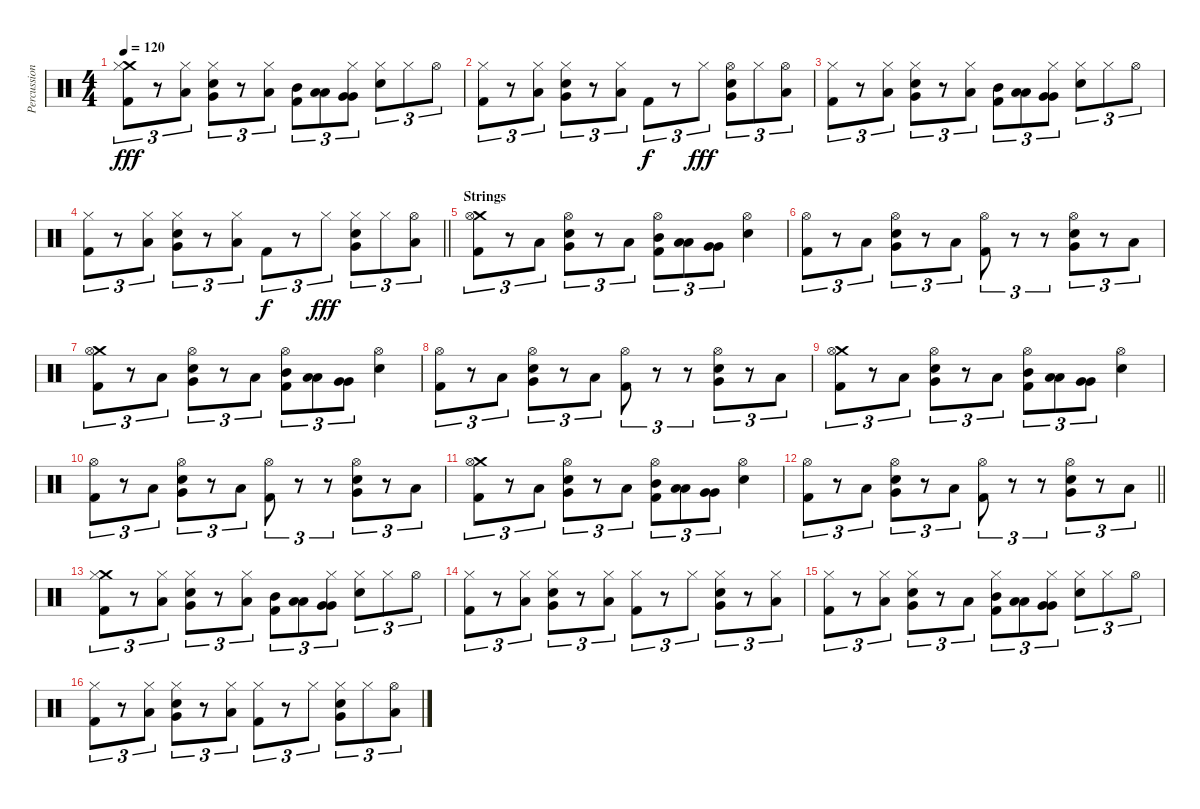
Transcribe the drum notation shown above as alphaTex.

\track ("Percussion" "Percussion") {instrument percussion}
\staff {score}
\articulation defaults
\ts (4 4)
\tempo 120
\clef neutral
\ks c
("Crash medium (hit)" "Hi-Hat (closed)" "Kick (hit) 2").8{tu (3 2) dy fff} r.8{tu (3 2)} ("Low Tom (hit)" "Hi-Hat (closed)").8{tu (3 2)} ("Very Low Tom (hit)" "Hi-Hat (closed)" "Snare (hit) 2").8{tu (3 2)} r.8{tu (3 2)} ("Low Tom (hit)" "Hi-Hat (closed)").8{tu (3 2)} ("Mid Tom (hit)" "Kick (hit) 2").8{tu (3 2)} ("Low Tom (hit)" "Low Tom (hit)").8{tu (3 2)} ("Very Low Tom (hit)" "Very Low Tom (hit)" "Hi-Hat (closed)").8{tu (3 2)} ("Hi-Hat (closed)" "Snare (hit) 2").8{tu (3 2)} "Hi-Hat (closed)".8{tu (3 2)} "Hi-Hat (open)".8{tu (3 2)} |
("Hi-Hat (closed)" "Kick (hit) 2").8{tu (3 2)} r.8{tu (3 2)} ("Low Tom (hit)" "Hi-Hat (closed)").8{tu (3 2)} ("Very Low Tom (hit)" "Hi-Hat (closed)" "Snare (hit) 2").8{tu (3 2)} r.8{tu (3 2)} ("Low Tom (hit)" "Hi-Hat (closed)").8{tu (3 2)} "Kick (hit) 2".8{tu (3 2) dy f} r.8{tu (3 2)} "Hi-Hat (closed)".8{tu (3 2) dy fff} ("Very Low Tom (hit)" "Hi-Hat (open)" "Snare (hit) 2").8{tu (3 2)} "Hi-Hat (closed)".8{tu (3 2)} ("Low Tom (hit)" "Hi-Hat (open)").8{tu (3 2)} |
("Hi-Hat (closed)" "Kick (hit) 2").8{tu (3 2)} r.8{tu (3 2)} ("Low Tom (hit)" "Hi-Hat (closed)").8{tu (3 2)} ("Very Low Tom (hit)" "Hi-Hat (closed)" "Snare (hit) 2").8{tu (3 2)} r.8{tu (3 2)} ("Low Tom (hit)" "Hi-Hat (closed)").8{tu (3 2)} ("Mid Tom (hit)" "Kick (hit) 2").8{tu (3 2)} ("Low Tom (hit)" "Low Tom (hit)").8{tu (3 2)} ("Very Low Tom (hit)" "Very Low Tom (hit)" "Hi-Hat (closed)").8{tu (3 2)} ("Hi-Hat (closed)" "Snare (hit) 2").8{tu (3 2)} "Hi-Hat (closed)".8{tu (3 2)} "Hi-Hat (open)".8{tu (3 2)} |
\barLineRight lightlight
("Hi-Hat (closed)" "Kick (hit) 2").8{tu (3 2)} r.8{tu (3 2)} ("Low Tom (hit)" "Hi-Hat (closed)").8{tu (3 2)} ("Very Low Tom (hit)" "Hi-Hat (closed)" "Snare (hit) 2").8{tu (3 2)} r.8{tu (3 2)} ("Low Tom (hit)" "Hi-Hat (closed)").8{tu (3 2)} "Kick (hit) 2".8{tu (3 2) dy f} r.8{tu (3 2)} "Hi-Hat (closed)".8{tu (3 2) dy fff} ("Very Low Tom (hit)" "Hi-Hat (closed)" "Snare (hit) 2").8{tu (3 2)} "Hi-Hat (closed)".8{tu (3 2)} ("Low Tom (hit)" "Hi-Hat (open)").8{tu (3 2)} |
\section ("" "Strings")
("Crash medium (hit)" "Hi-Hat (open)" "Kick (hit) 2").8{tu (3 2)} r.8{tu (3 2)} "Low Tom (hit)".8{tu (3 2)} ("Very Low Tom (hit)" "Hi-Hat (open)" "Snare (hit) 2").8{tu (3 2)} r.8{tu (3 2)} "Low Tom (hit)".8{tu (3 2)} ("Mid Tom (hit)" "Hi-Hat (open)" "Kick (hit) 2").8{tu (3 2)} ("Low Tom (hit)" "Low Tom (hit)").8{tu (3 2)} ("Very Low Tom (hit)" "Very Low Tom (hit)").8{tu (3 2)} ("Hi-Hat (open)" "Snare (hit) 2").4 |
("Hi-Hat (open)" "Kick (hit) 2").8{tu (3 2)} r.8{tu (3 2)} "Low Tom (hit)".8{tu (3 2)} ("Very Low Tom (hit)" "Hi-Hat (open)" "Snare (hit) 2").8{tu (3 2)} r.8{tu (3 2)} "Low Tom (hit)".8{tu (3 2)} ("Hi-Hat (open)" "Kick (hit) 2").8{tu (3 2)} r.8{tu (3 2)} r.8{tu (3 2)} ("Very Low Tom (hit)" "Hi-Hat (open)" "Snare (hit) 2").8{tu (3 2)} r.8{tu (3 2)} "Low Tom (hit)".8{tu (3 2)} |
("Crash medium (hit)" "Hi-Hat (open)" "Kick (hit) 2").8{tu (3 2)} r.8{tu (3 2)} "Low Tom (hit)".8{tu (3 2)} ("Very Low Tom (hit)" "Hi-Hat (open)" "Snare (hit) 2").8{tu (3 2)} r.8{tu (3 2)} "Low Tom (hit)".8{tu (3 2)} ("Mid Tom (hit)" "Hi-Hat (open)" "Kick (hit) 2").8{tu (3 2)} ("Low Tom (hit)" "Low Tom (hit)").8{tu (3 2)} ("Very Low Tom (hit)" "Very Low Tom (hit)").8{tu (3 2)} ("Hi-Hat (open)" "Snare (hit) 2").4 |
("Hi-Hat (open)" "Kick (hit) 2").8{tu (3 2)} r.8{tu (3 2)} "Low Tom (hit)".8{tu (3 2)} ("Very Low Tom (hit)" "Hi-Hat (open)" "Snare (hit) 2").8{tu (3 2)} r.8{tu (3 2)} "Low Tom (hit)".8{tu (3 2)} ("Hi-Hat (open)" "Kick (hit) 2").8{tu (3 2)} r.8{tu (3 2)} r.8{tu (3 2)} ("Very Low Tom (hit)" "Hi-Hat (open)" "Snare (hit) 2").8{tu (3 2)} r.8{tu (3 2)} "Low Tom (hit)".8{tu (3 2)} |
("Crash medium (hit)" "Hi-Hat (open)" "Kick (hit) 2").8{tu (3 2)} r.8{tu (3 2)} "Low Tom (hit)".8{tu (3 2)} ("Very Low Tom (hit)" "Hi-Hat (open)" "Snare (hit) 2").8{tu (3 2)} r.8{tu (3 2)} "Low Tom (hit)".8{tu (3 2)} ("Mid Tom (hit)" "Hi-Hat (open)" "Kick (hit) 2").8{tu (3 2)} ("Low Tom (hit)" "Low Tom (hit)").8{tu (3 2)} ("Very Low Tom (hit)" "Very Low Tom (hit)").8{tu (3 2)} ("Hi-Hat (open)" "Snare (hit) 2").4 |
("Hi-Hat (open)" "Kick (hit) 2").8{tu (3 2)} r.8{tu (3 2)} "Low Tom (hit)".8{tu (3 2)} ("Very Low Tom (hit)" "Hi-Hat (open)" "Snare (hit) 2").8{tu (3 2)} r.8{tu (3 2)} "Low Tom (hit)".8{tu (3 2)} ("Hi-Hat (open)" "Kick (hit) 2").8{tu (3 2)} r.8{tu (3 2)} r.8{tu (3 2)} ("Very Low Tom (hit)" "Hi-Hat (open)" "Snare (hit) 2").8{tu (3 2)} r.8{tu (3 2)} "Low Tom (hit)".8{tu (3 2)} |
("Crash medium (hit)" "Hi-Hat (open)" "Kick (hit) 2").8{tu (3 2)} r.8{tu (3 2)} "Low Tom (hit)".8{tu (3 2)} ("Very Low Tom (hit)" "Hi-Hat (open)" "Snare (hit) 2").8{tu (3 2)} r.8{tu (3 2)} "Low Tom (hit)".8{tu (3 2)} ("Mid Tom (hit)" "Hi-Hat (open)" "Kick (hit) 2").8{tu (3 2)} ("Low Tom (hit)" "Low Tom (hit)").8{tu (3 2)} ("Very Low Tom (hit)" "Very Low Tom (hit)").8{tu (3 2)} ("Hi-Hat (open)" "Snare (hit) 2").4 |
\barLineRight lightlight
("Hi-Hat (open)" "Kick (hit) 2").8{tu (3 2)} r.8{tu (3 2)} "Low Tom (hit)".8{tu (3 2)} ("Very Low Tom (hit)" "Hi-Hat (open)" "Snare (hit) 2").8{tu (3 2)} r.8{tu (3 2)} "Low Tom (hit)".8{tu (3 2)} ("Hi-Hat (open)" "Kick (hit) 2").8{tu (3 2)} r.8{tu (3 2)} r.8{tu (3 2)} ("Very Low Tom (hit)" "Hi-Hat (open)" "Snare (hit) 2").8{tu (3 2)} r.8{tu (3 2)} "Low Tom (hit)".8{tu (3 2)} |
\section ("" "")
("Crash medium (hit)" "Hi-Hat (closed)" "Kick (hit) 2").8{tu (3 2)} r.8{tu (3 2)} ("Low Tom (hit)" "Hi-Hat (closed)").8{tu (3 2)} ("Very Low Tom (hit)" "Hi-Hat (closed)" "Snare (hit) 2").8{tu (3 2)} r.8{tu (3 2)} ("Low Tom (hit)" "Hi-Hat (closed)").8{tu (3 2)} ("Mid Tom (hit)" "Kick (hit) 2").8{tu (3 2)} ("Low Tom (hit)" "Low Tom (hit)").8{tu (3 2)} ("Very Low Tom (hit)" "Very Low Tom (hit)" "Hi-Hat (closed)").8{tu (3 2)} ("Hi-Hat (closed)" "Snare (hit) 2").8{tu (3 2)} "Hi-Hat (closed)".8{tu (3 2)} "Hi-Hat (open)".8{tu (3 2)} |
("Hi-Hat (closed)" "Kick (hit) 2").8{tu (3 2)} r.8{tu (3 2)} ("Low Tom (hit)" "Hi-Hat (closed)").8{tu (3 2)} ("Very Low Tom (hit)" "Hi-Hat (closed)" "Snare (hit) 2").8{tu (3 2)} r.8{tu (3 2)} ("Low Tom (hit)" "Hi-Hat (closed)").8{tu (3 2)} ("Hi-Hat (closed)" "Kick (hit) 2").8{tu (3 2)} r.8{tu (3 2)} "Hi-Hat (closed)".8{tu (3 2)} ("Very Low Tom (hit)" "Hi-Hat (closed)" "Snare (hit) 2").8{tu (3 2)} r.8{tu (3 2)} ("Low Tom (hit)" "Hi-Hat (closed)").8{tu (3 2)} |
("Hi-Hat (closed)" "Kick (hit) 2").8{tu (3 2)} r.8{tu (3 2)} ("Low Tom (hit)" "Hi-Hat (closed)").8{tu (3 2)} ("Very Low Tom (hit)" "Hi-Hat (closed)" "Snare (hit) 2").8{tu (3 2)} r.8{tu (3 2)} "Low Tom (hit)".8{tu (3 2)} ("Mid Tom (hit)" "Hi-Hat (closed)" "Kick (hit) 2").8{tu (3 2)} ("Low Tom (hit)" "Low Tom (hit)").8{tu (3 2)} ("Very Low Tom (hit)" "Very Low Tom (hit)" "Hi-Hat (closed)").8{tu (3 2)} ("Hi-Hat (closed)" "Snare (hit) 2").8{tu (3 2)} "Hi-Hat (closed)".8{tu (3 2)} "Hi-Hat (open)".8{tu (3 2)} |
("Hi-Hat (closed)" "Kick (hit) 2").8{tu (3 2)} r.8{tu (3 2)} ("Low Tom (hit)" "Hi-Hat (closed)").8{tu (3 2)} ("Very Low Tom (hit)" "Hi-Hat (closed)" "Snare (hit) 2").8{tu (3 2)} r.8{tu (3 2)} ("Low Tom (hit)" "Hi-Hat (closed)").8{tu (3 2)} ("Hi-Hat (closed)" "Kick (hit) 2").8{tu (3 2)} r.8{tu (3 2)} "Hi-Hat (closed)".8{tu (3 2)} ("Very Low Tom (hit)" "Hi-Hat (closed)" "Snare (hit) 2").8{tu (3 2)} "Hi-Hat (closed)".8{tu (3 2)} ("Low Tom (hit)" "Hi-Hat (open)").8{tu (3 2)}
